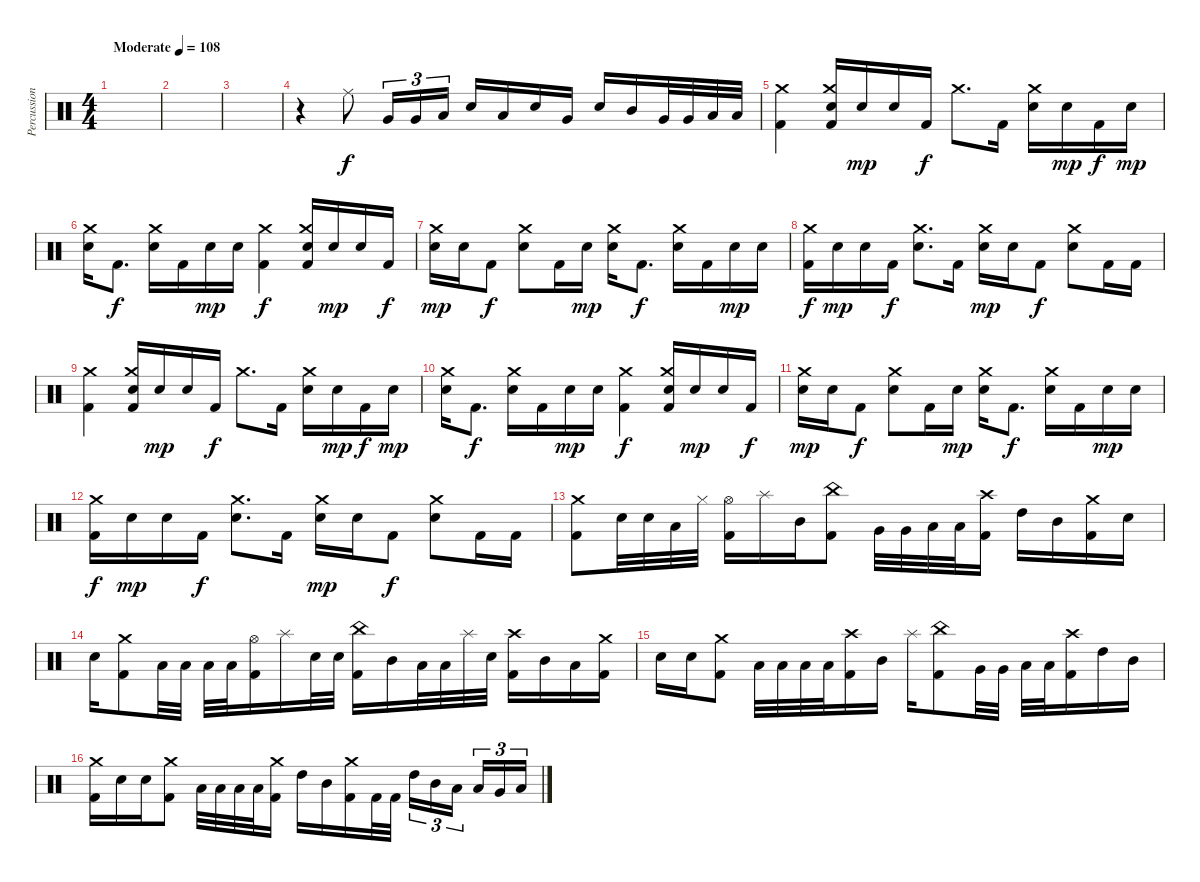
\track ("Percussion" "Percussion") {instrument percussion}
\staff {score}
\articulation defaults
\ts (4 4)
\tempo (108 "Moderate")
\clef neutral
\ks c
|
|
|
r.4 "Ride (middle)".8 "Very Low Tom (hit)".16{tu (3 2)} "Very Low Tom (hit)".16{tu (3 2)} "Low Tom (hit)".16{tu (3 2)} "Electric Snare (hit)".16 "Low Tom (hit)".16 "Electric Snare (hit)".16 "Very Low Tom (hit)".16 "Electric Snare (hit)".16 "Mid Tom (hit)".16 "Very Low Tom (hit)".32 "Very Low Tom (hit)".32 "Low Floor Tom (hit)".32 "Low Floor Tom (hit)".32 |
("Crash medium (hit)" "Kick (hit) 2").4 ("Crash medium (hit)" "Electric Snare (hit)" "Kick (hit) 2").16 "Electric Snare (hit)".16{dy mp} "Electric Snare (hit)".16 "Kick (hit) 2".16{dy f} "Crash medium (hit)".8{d} "Kick (hit) 2".16 ("Crash medium (hit)" "Electric Snare (hit)").16 "Electric Snare (hit)".16{dy mp} "Kick (hit) 2".16{dy f} "Electric Snare (hit)".16{dy mp} |
("Crash medium (hit)" "Electric Snare (hit)").16 "Kick (hit) 2".8{d dy f} ("Crash medium (hit)" "Electric Snare (hit)").16 "Kick (hit) 2".16 "Electric Snare (hit)".16{dy mp} "Electric Snare (hit)".16 ("Crash medium (hit)" "Kick (hit) 2").4{dy f} ("Crash medium (hit)" "Electric Snare (hit)" "Kick (hit) 2").16 "Electric Snare (hit)".16{dy mp} "Electric Snare (hit)".16 "Kick (hit) 2".16{dy f} |
("Crash medium (hit)" "Electric Snare (hit)").16{dy mp} "Electric Snare (hit)".16 "Kick (hit) 2".8{dy f} ("Crash medium (hit)" "Electric Snare (hit)").8 "Kick (hit) 2".16 "Electric Snare (hit)".16{dy mp} ("Crash medium (hit)" "Electric Snare (hit)").16 "Kick (hit) 2".8{d dy f} ("Crash medium (hit)" "Electric Snare (hit)").16 "Kick (hit) 2".16 "Electric Snare (hit)".16{dy mp} "Electric Snare (hit)".16 |
("Crash medium (hit)" "Kick (hit) 2").16{dy f} "Electric Snare (hit)".16{dy mp} "Electric Snare (hit)".16 "Kick (hit) 2".16{dy f} ("Crash medium (hit)" "Electric Snare (hit)").8{d} "Kick (hit) 2".16 ("Crash medium (hit)" "Electric Snare (hit)").16{dy mp} "Electric Snare (hit)".16 "Kick (hit) 2".8{dy f} ("Crash medium (hit)" "Electric Snare (hit)").8 "Kick (hit) 2".16 "Kick (hit) 2".16 |
("Crash medium (hit)" "Kick (hit) 2").4 ("Crash medium (hit)" "Electric Snare (hit)" "Kick (hit) 2").16 "Electric Snare (hit)".16{dy mp} "Electric Snare (hit)".16 "Kick (hit) 2".16{dy f} "Crash medium (hit)".8{d} "Kick (hit) 2".16 ("Crash medium (hit)" "Electric Snare (hit)").16 "Electric Snare (hit)".16{dy mp} "Kick (hit) 2".16{dy f} "Electric Snare (hit)".16{dy mp} |
("Crash medium (hit)" "Electric Snare (hit)").16 "Kick (hit) 2".8{d dy f} ("Crash medium (hit)" "Electric Snare (hit)").16 "Kick (hit) 2".16 "Electric Snare (hit)".16{dy mp} "Electric Snare (hit)".16 ("Crash medium (hit)" "Kick (hit) 2").4{dy f} ("Crash medium (hit)" "Electric Snare (hit)" "Kick (hit) 2").16 "Electric Snare (hit)".16{dy mp} "Electric Snare (hit)".16 "Kick (hit) 2".16{dy f} |
("Crash medium (hit)" "Electric Snare (hit)").16{dy mp} "Electric Snare (hit)".16 "Kick (hit) 2".8{dy f} ("Crash medium (hit)" "Electric Snare (hit)").8 "Kick (hit) 2".16 "Electric Snare (hit)".16{dy mp} ("Crash medium (hit)" "Electric Snare (hit)").16 "Kick (hit) 2".8{d dy f} ("Crash medium (hit)" "Electric Snare (hit)").16 "Kick (hit) 2".16 "Electric Snare (hit)".16{dy mp} "Electric Snare (hit)".16 |
("Crash medium (hit)" "Kick (hit) 2").16{dy f} "Electric Snare (hit)".16{dy mp} "Electric Snare (hit)".16 "Kick (hit) 2".16{dy f} ("Crash medium (hit)" "Electric Snare (hit)").8{d} "Kick (hit) 2".16 ("Crash medium (hit)" "Electric Snare (hit)").16{dy mp} "Electric Snare (hit)".16 "Kick (hit) 2".8{dy f} ("Crash medium (hit)" "Electric Snare (hit)").8 "Kick (hit) 2".16 "Kick (hit) 2".16 |
("Crash medium (hit)" "Kick (hit) 2").8 "Electric Snare (hit)".32 "Electric Snare (hit)".32 "Low Tom (hit)".32 "Hi-Hat (closed)".32 ("Hi-Hat (open)" "Kick (hit) 2").16 "Splash (hit)".16 "Mid Tom (hit)".16 ("China (hit)" "Kick (hit) 2").8 "Very Low Tom (hit)".32 "Very Low Tom (hit)".32 "Low Floor Tom (hit)".32 "Low Floor Tom (hit)".32 ("Crash high (hit)" "Kick (hit) 2").16 "High Tom (hit)".16 "Mid Tom (hit)".16 ("Crash medium (hit)" "Kick (hit) 2").16 "Electric Snare (hit)".16 |
"Electric Snare (hit)".16 ("Crash medium (hit)" "Kick (hit) 2").8 "Low Floor Tom (hit)".32 "Low Floor Tom (hit)".32 "Low Floor Tom (hit)".32 "Low Floor Tom (hit)".32 ("Hi-Hat (open)" "Kick (hit) 2").16 "Splash (hit)".16 "Electric Snare (hit)".32 "Electric Snare (hit)".32 ("China (hit)" "Kick (hit) 2").16 "Mid Tom (hit)".16 "Low Tom (hit)".32 "Low Tom (hit)".32 "Splash (hit)".32 "Electric Snare (hit)".32 ("Crash high (hit)" "Kick (hit) 2").16 "Mid Tom (hit)".16 "Low Tom (hit)".16 ("Crash medium (hit)" "Kick (hit) 2").16 |
"Electric Snare (hit)".16 "Electric Snare (hit)".16 ("Crash medium (hit)" "Kick (hit) 2").8 "Low Floor Tom (hit)".32 "Low Floor Tom (hit)".32 "Low Floor Tom (hit)".32 "Low Floor Tom (hit)".32 ("Crash high (hit)" "Kick (hit) 2").16 "Mid Tom (hit)".16 "Splash (hit)".16 ("China (hit)" "Kick (hit) 2").8 "Very Low Tom (hit)".32 "Very Low Tom (hit)".32 "Low Floor Tom (hit)".32 "Low Floor Tom (hit)".32 ("Crash high (hit)" "Kick (hit) 2").16 "High Tom (hit)".16 "Mid Tom (hit)".16 |
("Crash medium (hit)" "Kick (hit) 2").16 "Electric Snare (hit)".16 "Electric Snare (hit)".16 ("Crash medium (hit)" "Kick (hit) 2").8 "Low Floor Tom (hit)".32 "Low Floor Tom (hit)".32 "Low Floor Tom (hit)".32 "Low Floor Tom (hit)".32 ("Crash medium (hit)" "Kick (hit) 2").16 "High Tom (hit)".16 "Mid Tom (hit)".16 ("Crash medium (hit)" "Kick (hit) 2").16 "Kick (hit) 2".32 "Kick (hit) 2".32 "High Tom (hit)".16{tu (3 2)} "Mid Tom (hit)".16{tu (3 2)} "Low Tom (hit)".16{tu (3 2) beam splitsecondary} "Low Tom (hit)".16{tu (3 2)} "Very Low Tom (hit)".16{tu (3 2)} "Low Floor Tom (hit)".16{tu (3 2)}
